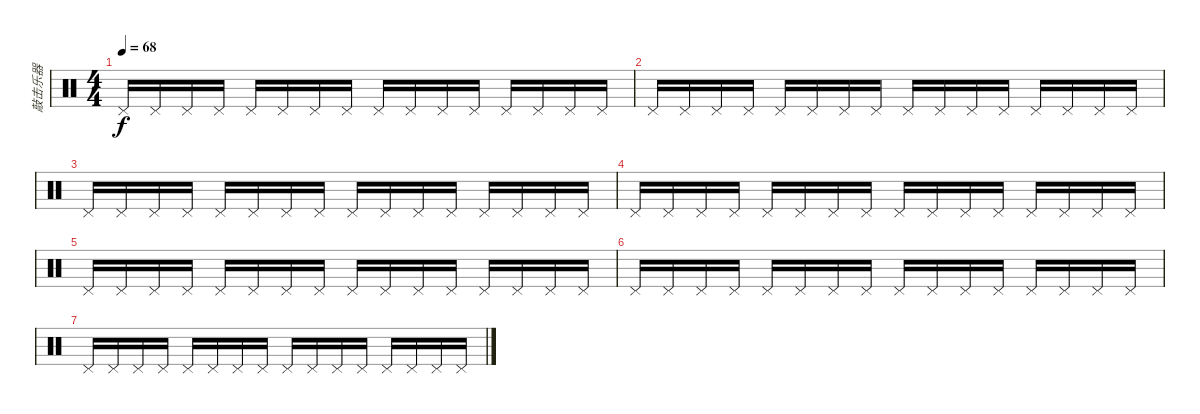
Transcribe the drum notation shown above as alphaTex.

\track ("敲击乐器" "敲击乐器") {instrument percussion}
\staff {score}
\articulation defaults
\ts (4 4)
\tempo 68
\clef neutral
\ks c "Pedal Hi-Hat (hit)".16{dy f} "Pedal Hi-Hat (hit)".16 "Pedal Hi-Hat (hit)".16 "Pedal Hi-Hat (hit)".16 "Pedal Hi-Hat (hit)".16 "Pedal Hi-Hat (hit)".16 "Pedal Hi-Hat (hit)".16 "Pedal Hi-Hat (hit)".16 "Pedal Hi-Hat (hit)".16 "Pedal Hi-Hat (hit)".16 "Pedal Hi-Hat (hit)".16 "Pedal Hi-Hat (hit)".16 "Pedal Hi-Hat (hit)".16 "Pedal Hi-Hat (hit)".16 "Pedal Hi-Hat (hit)".16 "Pedal Hi-Hat (hit)".16
|
"Pedal Hi-Hat (hit)".16 "Pedal Hi-Hat (hit)".16 "Pedal Hi-Hat (hit)".16 "Pedal Hi-Hat (hit)".16 "Pedal Hi-Hat (hit)".16 "Pedal Hi-Hat (hit)".16 "Pedal Hi-Hat (hit)".16 "Pedal Hi-Hat (hit)".16 "Pedal Hi-Hat (hit)".16 "Pedal Hi-Hat (hit)".16 "Pedal Hi-Hat (hit)".16 "Pedal Hi-Hat (hit)".16 "Pedal Hi-Hat (hit)".16 "Pedal Hi-Hat (hit)".16 "Pedal Hi-Hat (hit)".16 "Pedal Hi-Hat (hit)".16 |
"Pedal Hi-Hat (hit)".16 "Pedal Hi-Hat (hit)".16 "Pedal Hi-Hat (hit)".16 "Pedal Hi-Hat (hit)".16 "Pedal Hi-Hat (hit)".16 "Pedal Hi-Hat (hit)".16 "Pedal Hi-Hat (hit)".16 "Pedal Hi-Hat (hit)".16 "Pedal Hi-Hat (hit)".16 "Pedal Hi-Hat (hit)".16 "Pedal Hi-Hat (hit)".16 "Pedal Hi-Hat (hit)".16 "Pedal Hi-Hat (hit)".16 "Pedal Hi-Hat (hit)".16 "Pedal Hi-Hat (hit)".16 "Pedal Hi-Hat (hit)".16 |
"Pedal Hi-Hat (hit)".16 "Pedal Hi-Hat (hit)".16 "Pedal Hi-Hat (hit)".16 "Pedal Hi-Hat (hit)".16 "Pedal Hi-Hat (hit)".16 "Pedal Hi-Hat (hit)".16 "Pedal Hi-Hat (hit)".16 "Pedal Hi-Hat (hit)".16 "Pedal Hi-Hat (hit)".16 "Pedal Hi-Hat (hit)".16 "Pedal Hi-Hat (hit)".16 "Pedal Hi-Hat (hit)".16 "Pedal Hi-Hat (hit)".16 "Pedal Hi-Hat (hit)".16 "Pedal Hi-Hat (hit)".16 "Pedal Hi-Hat (hit)".16 |
"Pedal Hi-Hat (hit)".16 "Pedal Hi-Hat (hit)".16 "Pedal Hi-Hat (hit)".16 "Pedal Hi-Hat (hit)".16 "Pedal Hi-Hat (hit)".16 "Pedal Hi-Hat (hit)".16 "Pedal Hi-Hat (hit)".16 "Pedal Hi-Hat (hit)".16 "Pedal Hi-Hat (hit)".16 "Pedal Hi-Hat (hit)".16 "Pedal Hi-Hat (hit)".16 "Pedal Hi-Hat (hit)".16 "Pedal Hi-Hat (hit)".16 "Pedal Hi-Hat (hit)".16 "Pedal Hi-Hat (hit)".16 "Pedal Hi-Hat (hit)".16 |
"Pedal Hi-Hat (hit)".16 "Pedal Hi-Hat (hit)".16 "Pedal Hi-Hat (hit)".16 "Pedal Hi-Hat (hit)".16 "Pedal Hi-Hat (hit)".16 "Pedal Hi-Hat (hit)".16 "Pedal Hi-Hat (hit)".16 "Pedal Hi-Hat (hit)".16 "Pedal Hi-Hat (hit)".16 "Pedal Hi-Hat (hit)".16 "Pedal Hi-Hat (hit)".16 "Pedal Hi-Hat (hit)".16 "Pedal Hi-Hat (hit)".16 "Pedal Hi-Hat (hit)".16 "Pedal Hi-Hat (hit)".16 "Pedal Hi-Hat (hit)".16 |
"Pedal Hi-Hat (hit)".16 "Pedal Hi-Hat (hit)".16 "Pedal Hi-Hat (hit)".16 "Pedal Hi-Hat (hit)".16 "Pedal Hi-Hat (hit)".16 "Pedal Hi-Hat (hit)".16 "Pedal Hi-Hat (hit)".16 "Pedal Hi-Hat (hit)".16 "Pedal Hi-Hat (hit)".16 "Pedal Hi-Hat (hit)".16 "Pedal Hi-Hat (hit)".16 "Pedal Hi-Hat (hit)".16 "Pedal Hi-Hat (hit)".16 "Pedal Hi-Hat (hit)".16 "Pedal Hi-Hat (hit)".16 "Pedal Hi-Hat (hit)".16
